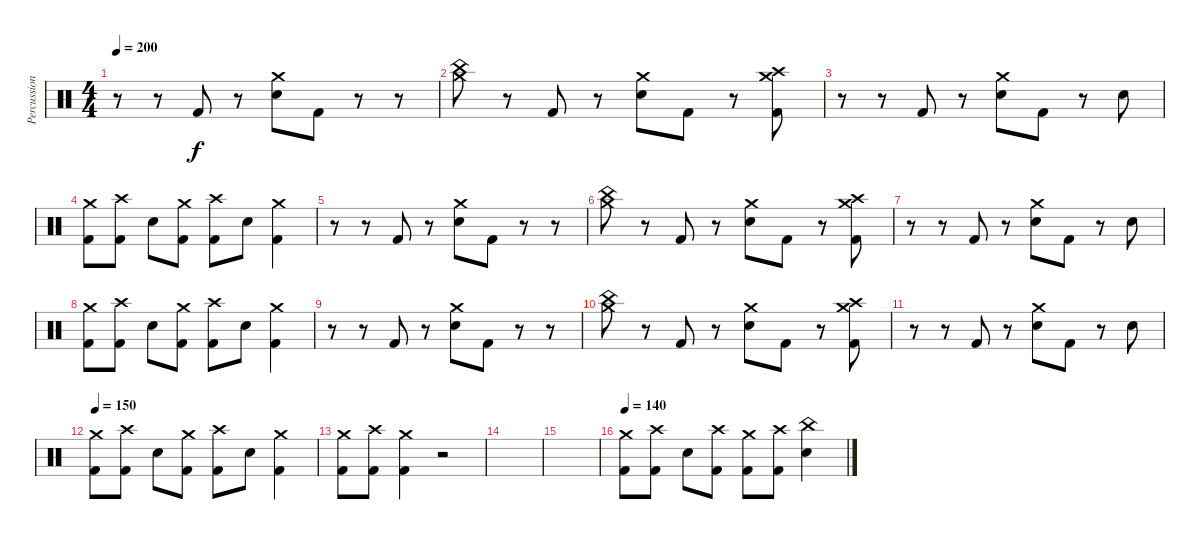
\track ("Percussion" "Percussion") {instrument percussion}
\staff {score}
\articulation defaults
\ts (4 4)
\tempo 200
\clef neutral
\ks c
r.8{dy f} r.8 "Kick (hit) 2".8 r.8 ("Electric Snare (hit)" "Crash medium (hit)").8 "Kick (hit) 2".8 r.8 r.8 |
("Crash medium (hit)" "China (hit)").8 r.8 "Kick (hit) 2".8 r.8 ("Electric Snare (hit)" "Crash medium (hit)").8 "Kick (hit) 2".8 r.8 ("Kick (hit) 2" "Crash medium (hit)" "Crash high (hit)").8 |
r.8 r.8 "Kick (hit) 2".8 r.8 ("Electric Snare (hit)" "Crash medium (hit)").8 "Kick (hit) 2".8 r.8 "Electric Snare (hit)".8 |
("Kick (hit) 2" "Crash medium (hit)").8 ("Kick (hit) 2" "Crash high (hit)").8 "Electric Snare (hit)".8 ("Kick (hit) 2" "Crash medium (hit)").8 ("Kick (hit) 2" "Crash high (hit)").8 "Electric Snare (hit)".8 ("Kick (hit) 2" "Crash medium (hit)").4 |
r.8 r.8 "Kick (hit) 2".8 r.8 ("Electric Snare (hit)" "Crash medium (hit)").8 "Kick (hit) 2".8 r.8 r.8 |
("Crash medium (hit)" "China (hit)").8 r.8 "Kick (hit) 2".8 r.8 ("Electric Snare (hit)" "Crash medium (hit)").8 "Kick (hit) 2".8 r.8 ("Kick (hit) 2" "Crash medium (hit)" "Crash high (hit)").8 |
r.8 r.8 "Kick (hit) 2".8 r.8 ("Electric Snare (hit)" "Crash medium (hit)").8 "Kick (hit) 2".8 r.8 "Electric Snare (hit)".8 |
("Kick (hit) 2" "Crash medium (hit)").8 ("Kick (hit) 2" "Crash high (hit)").8 "Electric Snare (hit)".8 ("Kick (hit) 2" "Crash medium (hit)").8 ("Kick (hit) 2" "Crash high (hit)").8 "Electric Snare (hit)".8 ("Kick (hit) 2" "Crash medium (hit)").4 |
r.8 r.8 "Kick (hit) 2".8 r.8 ("Electric Snare (hit)" "Crash medium (hit)").8 "Kick (hit) 2".8 r.8 r.8 |
("Crash medium (hit)" "China (hit)").8 r.8 "Kick (hit) 2".8 r.8 ("Electric Snare (hit)" "Crash medium (hit)").8 "Kick (hit) 2".8 r.8 ("Kick (hit) 2" "Crash medium (hit)" "Crash high (hit)").8 |
r.8 r.8 "Kick (hit) 2".8 r.8 ("Electric Snare (hit)" "Crash medium (hit)").8 "Kick (hit) 2".8 r.8 "Electric Snare (hit)".8 |
\tempo 150
("Kick (hit) 2" "Crash medium (hit)").8 ("Kick (hit) 2" "Crash high (hit)").8 "Electric Snare (hit)".8 ("Kick (hit) 2" "Crash medium (hit)").8 ("Kick (hit) 2" "Crash high (hit)").8 "Electric Snare (hit)".8 ("Kick (hit) 2" "Crash medium (hit)").4 |
("Kick (hit) 2" "Crash medium (hit)").8 ("Kick (hit) 2" "Crash high (hit)").8 ("Kick (hit) 2" "Crash medium (hit)").4 r.2 |
|
|
\tempo 140
("Kick (hit) 2" "Crash medium (hit)").8 ("Kick (hit) 2" "Crash high (hit)").8 "Electric Snare (hit)".8 ("Kick (hit) 2" "Crash high (hit)").8 ("Kick (hit) 2" "Crash medium (hit)").8 ("Kick (hit) 2" "Crash high (hit)").8 ("Electric Snare (hit)" "China (hit)").4
